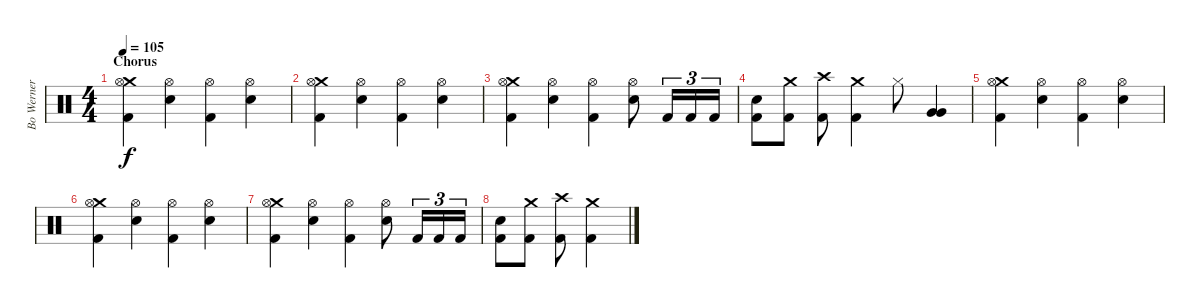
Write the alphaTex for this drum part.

\track ("Bo Werner" "Bo Werner") {instrument percussion}
\staff {score}
\articulation defaults
\ts (4 4)
\section ("" "Chorus")
\tempo 105
\clef neutral
\ks c
("Crash medium (hit)" "Hi-Hat (open)" "Kick (hit) 2").4{dy f} ("Hi-Hat (open)" "Snare (hit) 2").4 ("Hi-Hat (open)" "Kick (hit) 2").4 ("Hi-Hat (open)" "Snare (hit) 2").4 |
("Crash medium (hit)" "Hi-Hat (open)" "Kick (hit) 2").4 ("Hi-Hat (open)" "Snare (hit) 2").4 ("Hi-Hat (open)" "Kick (hit) 2").4 ("Hi-Hat (open)" "Snare (hit) 2").4 |
("Crash medium (hit)" "Hi-Hat (open)" "Kick (hit) 2").4 ("Hi-Hat (open)" "Snare (hit) 2").4 ("Hi-Hat (open)" "Kick (hit) 2").4 ("Hi-Hat (open)" "Snare (hit) 2").8 "Kick (hit) 2".16{tu (3 2)} "Kick (hit) 2".16{tu (3 2)} "Kick (hit) 2".16{tu (3 2)} |
("Snare (hit) 2" "Kick (hit) 2").8 ("Crash medium (hit)" "Kick (hit) 2").8 ("Crash high (hit)" "Kick (hit) 2").8 ("Crash medium (hit)" "Kick (hit) 2").4 "Hi-Hat (closed)".8 ("Very Low Tom (hit)" "Very Low Tom (hit)").4 |
("Crash medium (hit)" "Hi-Hat (open)" "Kick (hit) 2").4 ("Hi-Hat (open)" "Snare (hit) 2").4 ("Hi-Hat (open)" "Kick (hit) 2").4 ("Hi-Hat (open)" "Snare (hit) 2").4 |
("Crash medium (hit)" "Hi-Hat (open)" "Kick (hit) 2").4 ("Hi-Hat (open)" "Snare (hit) 2").4 ("Hi-Hat (open)" "Kick (hit) 2").4 ("Hi-Hat (open)" "Snare (hit) 2").4 |
("Crash medium (hit)" "Hi-Hat (open)" "Kick (hit) 2").4 ("Hi-Hat (open)" "Snare (hit) 2").4 ("Hi-Hat (open)" "Kick (hit) 2").4 ("Hi-Hat (open)" "Snare (hit) 2").8 "Kick (hit) 2".16{tu (3 2)} "Kick (hit) 2".16{tu (3 2)} "Kick (hit) 2".16{tu (3 2)} |
("Snare (hit) 2" "Kick (hit) 2").8 ("Crash medium (hit)" "Kick (hit) 2").8 ("Crash high (hit)" "Kick (hit) 2").8 ("Crash medium (hit)" "Kick (hit) 2").4
